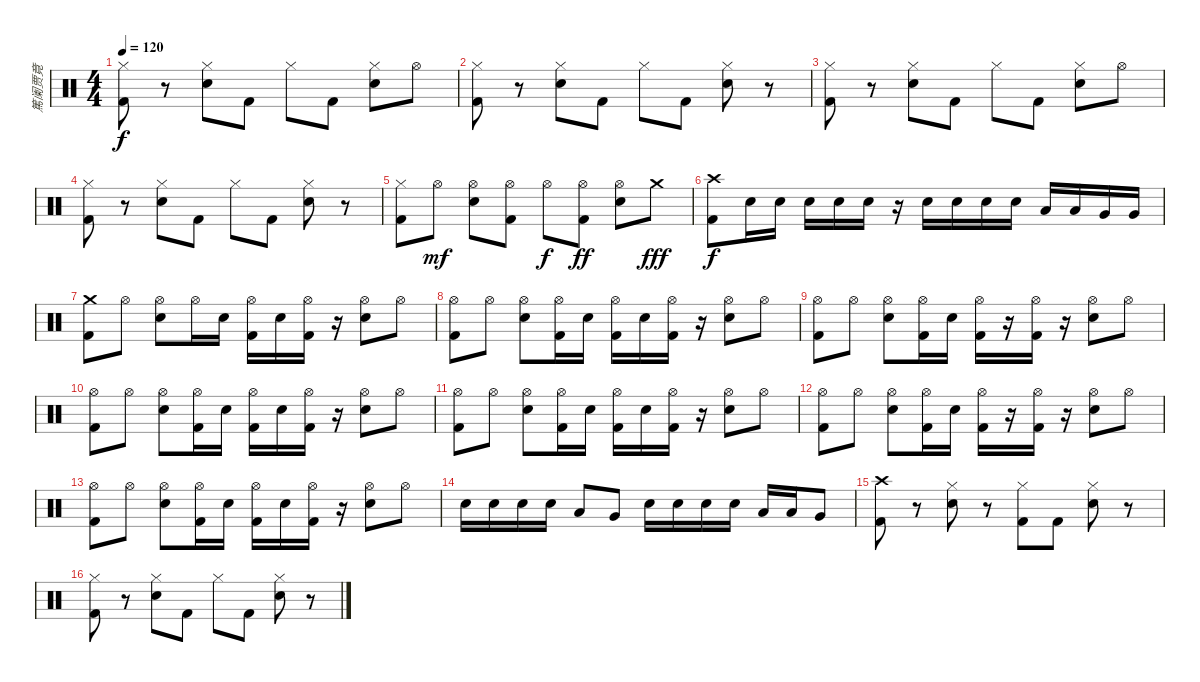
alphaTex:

\track ("篤阑贾竟" "篤阑贾竟") {instrument percussion}
\staff {score}
\articulation defaults
\ts (4 4)
\tempo 120
\clef neutral
\ks c
("Hi-Hat (closed)" "Kick (hit) 2").8{dy f} r.8 ("Hi-Hat (closed)" "Electric Snare (hit)").8 "Kick (hit) 2".8 "Hi-Hat (closed)".8 "Kick (hit) 2".8 ("Hi-Hat (closed)" "Electric Snare (hit)").8 "Hi-Hat (open)".8 |
("Hi-Hat (closed)" "Kick (hit) 2").8 r.8 ("Hi-Hat (closed)" "Electric Snare (hit)").8 "Kick (hit) 2".8 "Hi-Hat (closed)".8 "Kick (hit) 2".8 ("Hi-Hat (closed)" "Electric Snare (hit)").8 r.8 |
("Hi-Hat (closed)" "Kick (hit) 2").8 r.8 ("Hi-Hat (closed)" "Electric Snare (hit)").8 "Kick (hit) 2".8 "Hi-Hat (closed)".8 "Kick (hit) 2".8 ("Hi-Hat (closed)" "Electric Snare (hit)").8 "Hi-Hat (open)".8 |
("Hi-Hat (closed)" "Kick (hit) 2").8 r.8 ("Hi-Hat (closed)" "Electric Snare (hit)").8 "Kick (hit) 2".8 "Hi-Hat (closed)".8 "Kick (hit) 2".8 ("Hi-Hat (closed)" "Electric Snare (hit)").8 r.8 |
("Hi-Hat (closed)" "Kick (hit) 2").8 "Hi-Hat (open)".8{dy mf} ("Hi-Hat (open)" "Electric Snare (hit)").8 ("Hi-Hat (open)" "Kick (hit) 2").8 "Hi-Hat (open)".8{dy f} ("Hi-Hat (open)" "Kick (hit) 2").8{dy ff} ("Hi-Hat (open)" "Electric Snare (hit)").8 "Crash medium (hit)".8{dy fff} |
("Crash high (hit)" "Kick (hit) 2").8{dy f} "Electric Snare (hit)".16 "Electric Snare (hit)".16 "Electric Snare (hit)".16 "Electric Snare (hit)".16 "Electric Snare (hit)".16 r.16 "Electric Snare (hit)".16 "Electric Snare (hit)".16 "Electric Snare (hit)".16 "Electric Snare (hit)".16 "Low Tom (hit)".16 "Low Tom (hit)".16 "Very Low Tom (hit)".16 "Very Low Tom (hit)".16 |
("Crash medium (hit)" "Kick (hit) 2").8 "Hi-Hat (open)".8 ("Hi-Hat (open)" "Electric Snare (hit)").8 "Hi-Hat (open)".16 "Electric Snare (hit)".16 ("Hi-Hat (open)" "Kick (hit) 2").16 "Electric Snare (hit)".16 ("Hi-Hat (open)" "Kick (hit) 2").16 r.16 ("Hi-Hat (open)" "Electric Snare (hit)").8 "Hi-Hat (open)".8 |
("Hi-Hat (open)" "Kick (hit) 2").8 "Hi-Hat (open)".8 ("Hi-Hat (open)" "Electric Snare (hit)").8 ("Hi-Hat (open)" "Kick (hit) 2").16 "Electric Snare (hit)".16 ("Hi-Hat (open)" "Kick (hit) 2").16 "Electric Snare (hit)".16 ("Hi-Hat (open)" "Kick (hit) 2").16 r.16 ("Hi-Hat (open)" "Electric Snare (hit)").8 "Hi-Hat (open)".8 |
("Hi-Hat (open)" "Kick (hit) 2").8 "Hi-Hat (open)".8 ("Hi-Hat (open)" "Electric Snare (hit)").8 ("Hi-Hat (open)" "Kick (hit) 2").16 "Electric Snare (hit)".16 ("Hi-Hat (open)" "Kick (hit) 2").16 r.16 ("Hi-Hat (open)" "Kick (hit) 2").16 r.16 ("Hi-Hat (open)" "Electric Snare (hit)").8 "Hi-Hat (open)".8 |
("Hi-Hat (open)" "Kick (hit) 2").8 "Hi-Hat (open)".8 ("Hi-Hat (open)" "Electric Snare (hit)").8 ("Hi-Hat (open)" "Kick (hit) 2").16 "Electric Snare (hit)".16 ("Hi-Hat (open)" "Kick (hit) 2").16 "Electric Snare (hit)".16 ("Hi-Hat (open)" "Kick (hit) 2").16 r.16 ("Hi-Hat (open)" "Electric Snare (hit)").8 "Hi-Hat (open)".8 |
("Hi-Hat (open)" "Kick (hit) 2").8 "Hi-Hat (open)".8 ("Hi-Hat (open)" "Electric Snare (hit)").8 ("Hi-Hat (open)" "Kick (hit) 2").16 "Electric Snare (hit)".16 ("Hi-Hat (open)" "Kick (hit) 2").16 "Electric Snare (hit)".16 ("Hi-Hat (open)" "Kick (hit) 2").16 r.16 ("Hi-Hat (open)" "Electric Snare (hit)").8 "Hi-Hat (open)".8 |
("Hi-Hat (open)" "Kick (hit) 2").8 "Hi-Hat (open)".8 ("Hi-Hat (open)" "Electric Snare (hit)").8 ("Hi-Hat (open)" "Kick (hit) 2").16 "Electric Snare (hit)".16 ("Hi-Hat (open)" "Kick (hit) 2").16 r.16 ("Hi-Hat (open)" "Kick (hit) 2").16 r.16 ("Hi-Hat (open)" "Electric Snare (hit)").8 "Hi-Hat (open)".8 |
("Hi-Hat (open)" "Kick (hit) 2").8 "Hi-Hat (open)".8 ("Hi-Hat (open)" "Electric Snare (hit)").8 ("Hi-Hat (open)" "Kick (hit) 2").16 "Electric Snare (hit)".16 ("Hi-Hat (open)" "Kick (hit) 2").16 "Electric Snare (hit)".16 ("Hi-Hat (open)" "Kick (hit) 2").16 r.16 ("Hi-Hat (open)" "Electric Snare (hit)").8 "Hi-Hat (open)".8 |
"Electric Snare (hit)".16 "Electric Snare (hit)".16 "Electric Snare (hit)".16 "Electric Snare (hit)".16 "Low Tom (hit)".8 "Very Low Tom (hit)".8 "Electric Snare (hit)".16 "Electric Snare (hit)".16 "Electric Snare (hit)".16 "Electric Snare (hit)".16 "Low Tom (hit)".16 "Low Tom (hit)".16 "Very Low Tom (hit)".8 |
("Crash high (hit)" "Kick (hit) 2").8 r.8 ("Hi-Hat (closed)" "Electric Snare (hit)").8 r.8 ("Hi-Hat (closed)" "Kick (hit) 2").8 "Kick (hit) 2".8 ("Hi-Hat (closed)" "Electric Snare (hit)").8 r.8 |
("Hi-Hat (closed)" "Kick (hit) 2").8 r.8 ("Hi-Hat (closed)" "Electric Snare (hit)").8 "Kick (hit) 2".8 "Hi-Hat (closed)".8 "Kick (hit) 2".8 ("Hi-Hat (closed)" "Electric Snare (hit)").8 r.8
